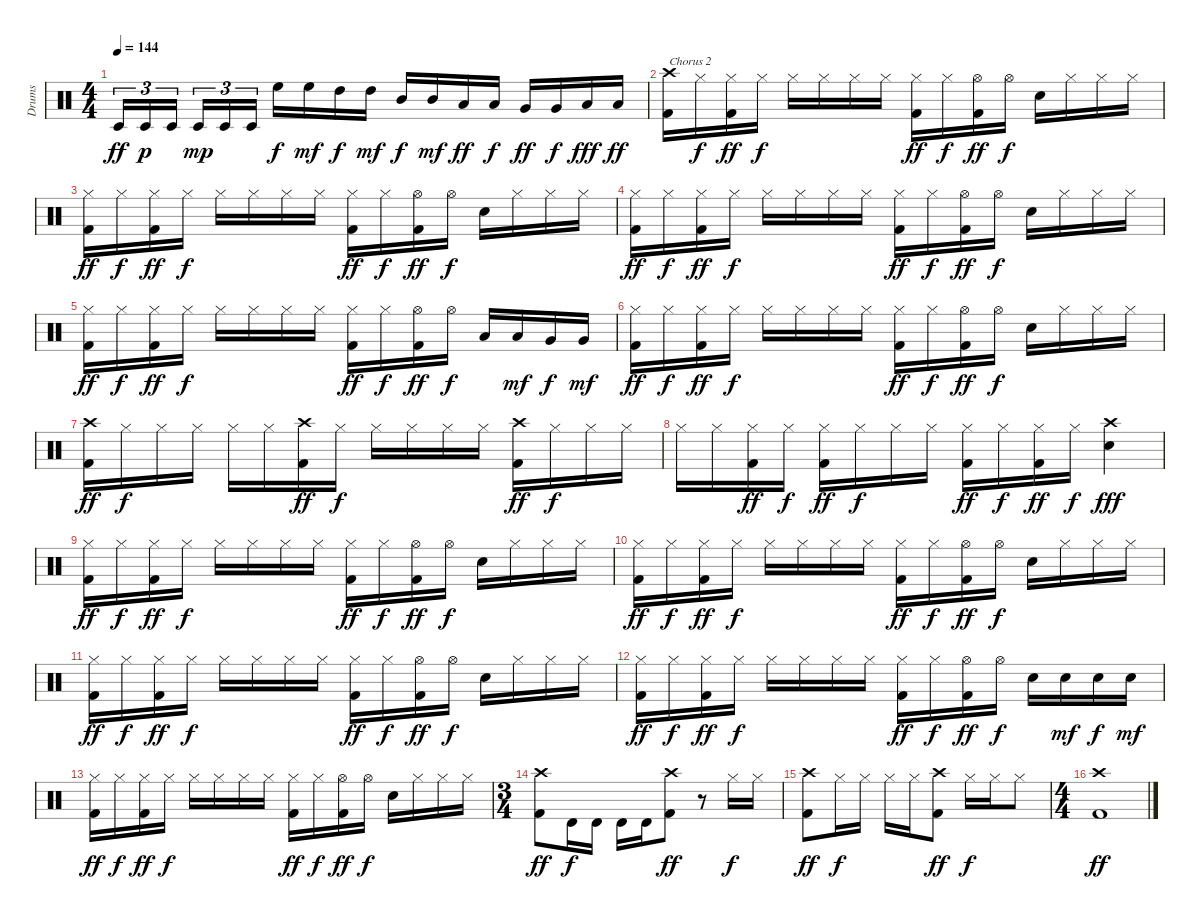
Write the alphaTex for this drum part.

\track ("Drums" "Drums") {instrument percussion}
\staff {score}
\articulation defaults
\ts (4 4)
\tempo 144
\clef neutral
\ks c "Timbale low (hit)".16{tu (3 2) dy ff} "Timbale low (hit)".16{tu (3 2) dy p} "Timbale low (hit)".16{tu (3 2)} "Timbale low (hit)".16{tu (3 2) dy mp} "Timbale low (hit)".16{tu (3 2)} "Timbale low (hit)".16{tu (3 2)} "High Floor Tom (hit)".16{dy f} "High Floor Tom (hit)".16{dy mf} "High Tom (hit)".16{dy f} "High Tom (hit)".16{dy mf} "Mid Tom (hit)".16{dy f} "Mid Tom (hit)".16{dy mf} "Low Tom (hit)".16{dy ff} "Low Tom (hit)".16{dy f} "Very Low Tom (hit)".16{dy ff} "Very Low Tom (hit)".16{dy f} "Low Floor Tom (hit)".16{dy fff} "Low Floor Tom (hit)".16{dy ff}
|
("Crash high (hit)" "Kick (hit) 2").16{txt "Chorus 2"} "Hi-Hat (closed)".16{dy f} ("Hi-Hat (closed)" "Kick (hit) 2").16{dy ff} "Hi-Hat (closed)".16{dy f} "Hi-Hat (closed)".16 "Hi-Hat (closed)".16 "Hi-Hat (closed)".16 "Hi-Hat (closed)".16 ("Hi-Hat (closed)" "Kick (hit) 2").16{dy ff} "Hi-Hat (closed)".16{dy f} ("Hi-Hat (open)" "Kick (hit) 2").16{dy ff} "Hi-Hat (open)".16{dy f} "Snare (hit) 2".16 "Hi-Hat (closed)".16 "Hi-Hat (closed)".16 "Hi-Hat (closed)".16 |
("Hi-Hat (closed)" "Kick (hit) 2").16{dy ff} "Hi-Hat (closed)".16{dy f} ("Hi-Hat (closed)" "Kick (hit) 2").16{dy ff} "Hi-Hat (closed)".16{dy f} "Hi-Hat (closed)".16 "Hi-Hat (closed)".16 "Hi-Hat (closed)".16 "Hi-Hat (closed)".16 ("Hi-Hat (closed)" "Kick (hit) 2").16{dy ff} "Hi-Hat (closed)".16{dy f} ("Hi-Hat (open)" "Kick (hit) 2").16{dy ff} "Hi-Hat (open)".16{dy f} "Snare (hit) 2".16 "Hi-Hat (closed)".16 "Hi-Hat (closed)".16 "Hi-Hat (closed)".16 |
("Hi-Hat (closed)" "Kick (hit) 2").16{dy ff} "Hi-Hat (closed)".16{dy f} ("Hi-Hat (closed)" "Kick (hit) 2").16{dy ff} "Hi-Hat (closed)".16{dy f} "Hi-Hat (closed)".16 "Hi-Hat (closed)".16 "Hi-Hat (closed)".16 "Hi-Hat (closed)".16 ("Hi-Hat (closed)" "Kick (hit) 2").16{dy ff} "Hi-Hat (closed)".16{dy f} ("Hi-Hat (open)" "Kick (hit) 2").16{dy ff} "Hi-Hat (open)".16{dy f} "Snare (hit) 2".16 "Hi-Hat (closed)".16 "Hi-Hat (closed)".16 "Hi-Hat (closed)".16 |
("Hi-Hat (closed)" "Kick (hit) 2").16{dy ff} "Hi-Hat (closed)".16{dy f} ("Hi-Hat (closed)" "Kick (hit) 2").16{dy ff} "Hi-Hat (closed)".16{dy f} "Hi-Hat (closed)".16 "Hi-Hat (closed)".16 "Hi-Hat (closed)".16 "Hi-Hat (closed)".16 ("Hi-Hat (closed)" "Kick (hit) 2").16{dy ff} "Hi-Hat (closed)".16{dy f} ("Hi-Hat (open)" "Kick (hit) 2").16{dy ff} "Hi-Hat (open)".16{dy f} "Low Tom (hit)".16 "Low Tom (hit)".16{dy mf} "Very Low Tom (hit)".16{dy f} "Very Low Tom (hit)".16{dy mf} |
("Hi-Hat (closed)" "Kick (hit) 2").16{dy ff} "Hi-Hat (closed)".16{dy f} ("Hi-Hat (closed)" "Kick (hit) 2").16{dy ff} "Hi-Hat (closed)".16{dy f} "Hi-Hat (closed)".16 "Hi-Hat (closed)".16 "Hi-Hat (closed)".16 "Hi-Hat (closed)".16 ("Hi-Hat (closed)" "Kick (hit) 2").16{dy ff} "Hi-Hat (closed)".16{dy f} ("Hi-Hat (open)" "Kick (hit) 2").16{dy ff} "Hi-Hat (open)".16{dy f} "Snare (hit) 2".16 "Hi-Hat (closed)".16 "Hi-Hat (closed)".16 "Hi-Hat (closed)".16 |
("Crash high (hit)" "Kick (hit) 2").16{dy ff} "Hi-Hat (closed)".16{dy f} "Hi-Hat (closed)".16 "Hi-Hat (closed)".16 "Hi-Hat (closed)".16 "Hi-Hat (closed)".16 ("Crash high (hit)" "Kick (hit) 2").16{dy ff} "Hi-Hat (closed)".16{dy f} "Hi-Hat (closed)".16 "Hi-Hat (closed)".16 "Hi-Hat (closed)".16 "Hi-Hat (closed)".16 ("Crash high (hit)" "Kick (hit) 2").16{dy ff} "Hi-Hat (closed)".16{dy f} "Hi-Hat (closed)".16 "Hi-Hat (closed)".16 |
"Hi-Hat (closed)".16 "Hi-Hat (closed)".16 ("Hi-Hat (closed)" "Kick (hit) 2").16{dy ff} "Hi-Hat (closed)".16{dy f} ("Hi-Hat (closed)" "Kick (hit) 2").16{dy ff} "Hi-Hat (closed)".16{dy f} "Hi-Hat (closed)".16 "Hi-Hat (closed)".16 ("Hi-Hat (closed)" "Kick (hit) 2").16{dy ff} "Hi-Hat (closed)".16{dy f} ("Hi-Hat (closed)" "Kick (hit) 2").16{dy ff} "Hi-Hat (closed)".16{dy f} ("Crash high (hit)" "Snare (hit) 2").4{dy fff} |
("Hi-Hat (closed)" "Kick (hit) 2").16{dy ff} "Hi-Hat (closed)".16{dy f} ("Hi-Hat (closed)" "Kick (hit) 2").16{dy ff} "Hi-Hat (closed)".16{dy f} "Hi-Hat (closed)".16 "Hi-Hat (closed)".16 "Hi-Hat (closed)".16 "Hi-Hat (closed)".16 ("Hi-Hat (closed)" "Kick (hit) 2").16{dy ff} "Hi-Hat (closed)".16{dy f} ("Hi-Hat (open)" "Kick (hit) 2").16{dy ff} "Hi-Hat (open)".16{dy f} "Snare (hit) 2".16 "Hi-Hat (closed)".16 "Hi-Hat (closed)".16 "Hi-Hat (closed)".16 |
("Hi-Hat (closed)" "Kick (hit) 2").16{dy ff} "Hi-Hat (closed)".16{dy f} ("Hi-Hat (closed)" "Kick (hit) 2").16{dy ff} "Hi-Hat (closed)".16{dy f} "Hi-Hat (closed)".16 "Hi-Hat (closed)".16 "Hi-Hat (closed)".16 "Hi-Hat (closed)".16 ("Hi-Hat (closed)" "Kick (hit) 2").16{dy ff} "Hi-Hat (closed)".16{dy f} ("Hi-Hat (open)" "Kick (hit) 2").16{dy ff} "Hi-Hat (open)".16{dy f} "Snare (hit) 2".16 "Hi-Hat (closed)".16 "Hi-Hat (closed)".16 "Hi-Hat (closed)".16 |
("Hi-Hat (closed)" "Kick (hit) 2").16{dy ff} "Hi-Hat (closed)".16{dy f} ("Hi-Hat (closed)" "Kick (hit) 2").16{dy ff} "Hi-Hat (closed)".16{dy f} "Hi-Hat (closed)".16 "Hi-Hat (closed)".16 "Hi-Hat (closed)".16 "Hi-Hat (closed)".16 ("Hi-Hat (closed)" "Kick (hit) 2").16{dy ff} "Hi-Hat (closed)".16{dy f} ("Hi-Hat (open)" "Kick (hit) 2").16{dy ff} "Hi-Hat (open)".16{dy f} "Snare (hit) 2".16 "Hi-Hat (closed)".16 "Hi-Hat (closed)".16 "Hi-Hat (closed)".16 |
("Hi-Hat (closed)" "Kick (hit) 2").16{dy ff} "Hi-Hat (closed)".16{dy f} ("Hi-Hat (closed)" "Kick (hit) 2").16{dy ff} "Hi-Hat (closed)".16{dy f} "Hi-Hat (closed)".16 "Hi-Hat (closed)".16 "Hi-Hat (closed)".16 "Hi-Hat (closed)".16 ("Hi-Hat (closed)" "Kick (hit) 2").16{dy ff} "Hi-Hat (closed)".16{dy f} ("Hi-Hat (open)" "Kick (hit) 2").16{dy ff} "Hi-Hat (open)".16{dy f} "Snare (hit) 2".16 "Snare (hit) 2".16{dy mf} "Snare (hit) 2".16{dy f} "Snare (hit) 2".16{dy mf} |
("Hi-Hat (closed)" "Kick (hit) 2").16{dy ff} "Hi-Hat (closed)".16{dy f} ("Hi-Hat (closed)" "Kick (hit) 2").16{dy ff} "Hi-Hat (closed)".16{dy f} "Hi-Hat (closed)".16 "Hi-Hat (closed)".16 "Hi-Hat (closed)".16 "Hi-Hat (closed)".16 ("Hi-Hat (closed)" "Kick (hit) 2").16{dy ff} "Hi-Hat (closed)".16{dy f} ("Hi-Hat (open)" "Kick (hit) 2").16{dy ff} "Hi-Hat (open)".16{dy f} "Snare (hit) 2".16 "Hi-Hat (closed)".16 "Hi-Hat (closed)".16 "Hi-Hat (closed)".16 |
\ts (3 4)
("Crash high (hit)" "Kick (hit) 2").8{dy ff} "Timbale high (hit)".16{dy f} "Timbale high (hit)".16 "Timbale high (hit)".16 "Timbale high (hit)".16 ("Crash high (hit)" "Kick (hit) 2").8{dy ff} r.8 "Hi-Hat (closed)".16{dy f} "Hi-Hat (closed)".16 |
("Crash high (hit)" "Kick (hit) 2").8{dy ff} "Hi-Hat (closed)".16{dy f} "Hi-Hat (closed)".16 "Hi-Hat (closed)".16 "Hi-Hat (closed)".16 ("Crash high (hit)" "Kick (hit) 2").8{dy ff} "Hi-Hat (closed)".16{dy f} "Hi-Hat (closed)".16 "Hi-Hat (closed)".8 |
\ts (4 4)
("Crash high (hit)" "Kick (hit) 2").1{dy ff}
